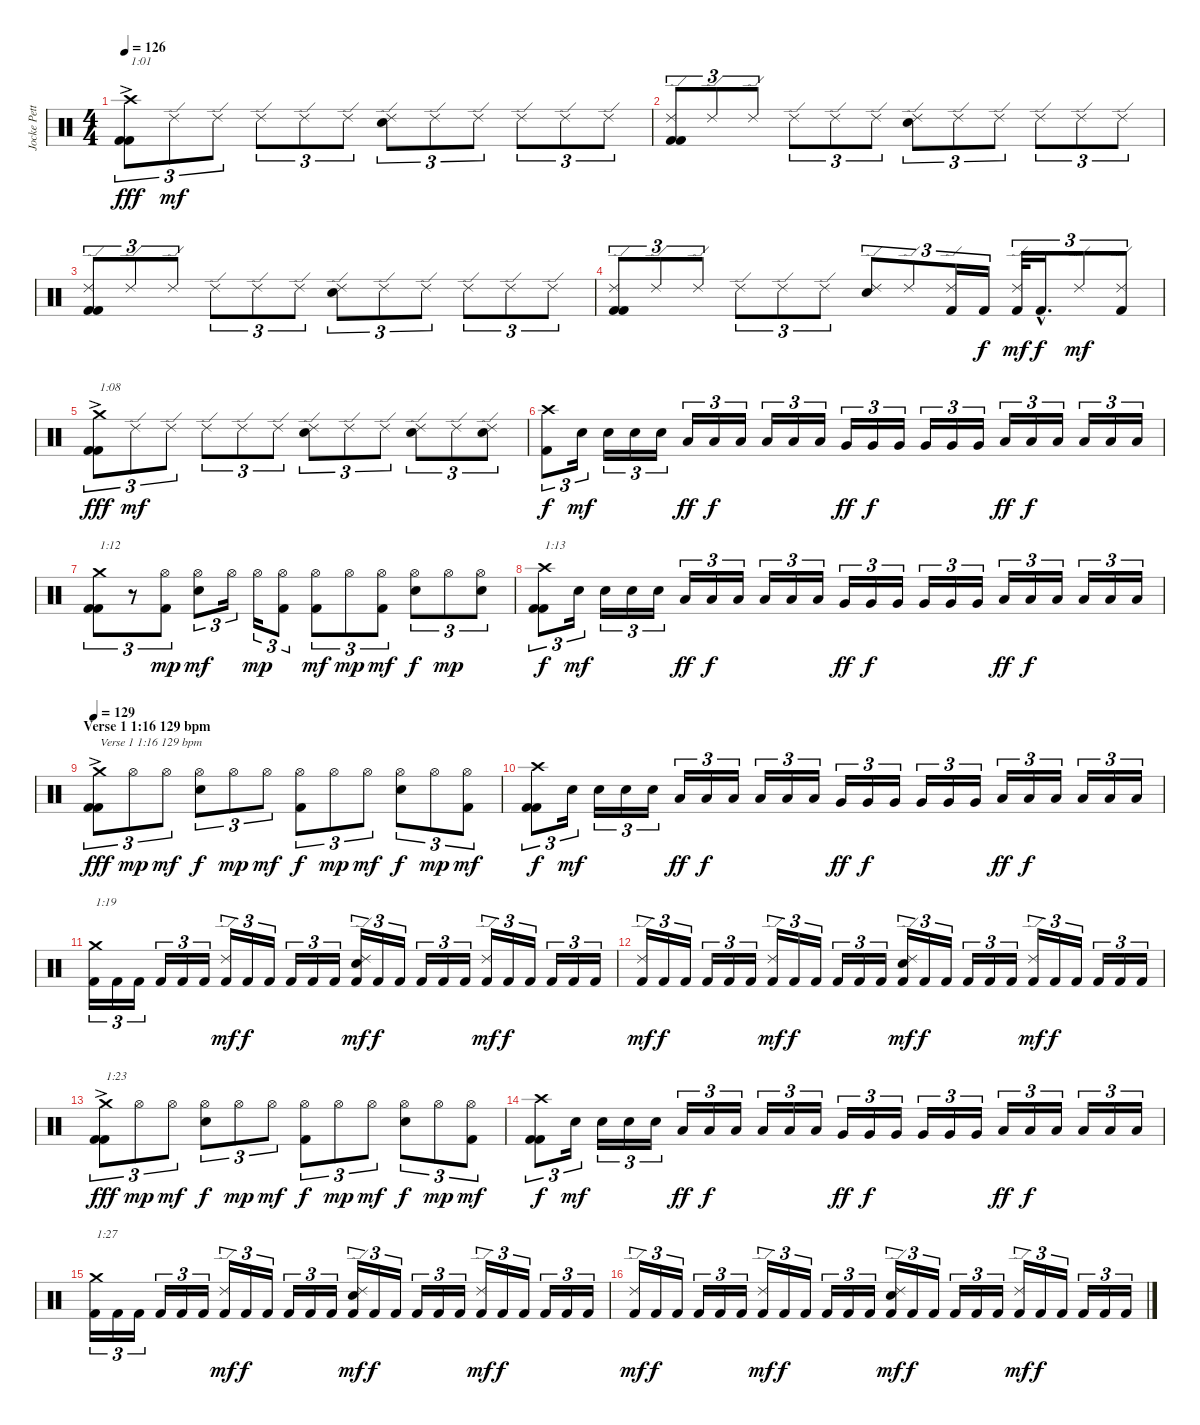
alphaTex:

\track ("Jocke Pettersson" "Jocke Pett") {instrument percussion}
\staff {score}
\articulation defaults
\ts (4 4)
\tempo 126
\clef neutral
\ks c
("Kick (hit) 2" "Kick (hit) 2" "Crash high (hit)"{ac}).8{tu (3 2) txt "1:01" dy fff} "Ride (edge) 2".8{tu (3 2) dy mf} "Ride (edge) 2".8{tu (3 2)} "Ride (edge) 2".8{tu (3 2)} "Ride (edge) 2".8{tu (3 2)} "Ride (edge) 2".8{tu (3 2)} ("Electric Snare (hit)" "Ride (edge) 2").8{tu (3 2)} "Ride (edge) 2".8{tu (3 2)} "Ride (edge) 2".8{tu (3 2)} "Ride (edge) 2".8{tu (3 2)} "Ride (edge) 2".8{tu (3 2)} "Ride (edge) 2".8{tu (3 2)} |
("Kick (hit) 2" "Kick (hit) 2" "Ride (edge) 2").8{tu (3 2)} "Ride (edge) 2".8{tu (3 2)} "Ride (edge) 2".8{tu (3 2)} "Ride (edge) 2".8{tu (3 2)} "Ride (edge) 2".8{tu (3 2)} "Ride (edge) 2".8{tu (3 2)} ("Electric Snare (hit)" "Ride (edge) 2").8{tu (3 2)} "Ride (edge) 2".8{tu (3 2)} "Ride (edge) 2".8{tu (3 2)} "Ride (edge) 2".8{tu (3 2)} "Ride (edge) 2".8{tu (3 2)} "Ride (edge) 2".8{tu (3 2)} |
("Kick (hit) 2" "Kick (hit) 2" "Ride (edge) 2").8{tu (3 2)} "Ride (edge) 2".8{tu (3 2)} "Ride (edge) 2".8{tu (3 2)} "Ride (edge) 2".8{tu (3 2)} "Ride (edge) 2".8{tu (3 2)} "Ride (edge) 2".8{tu (3 2)} ("Electric Snare (hit)" "Ride (edge) 2").8{tu (3 2)} "Ride (edge) 2".8{tu (3 2)} "Ride (edge) 2".8{tu (3 2)} "Ride (edge) 2".8{tu (3 2)} "Ride (edge) 2".8{tu (3 2)} "Ride (edge) 2".8{tu (3 2)} |
("Kick (hit) 2" "Kick (hit) 2" "Ride (edge) 2").8{tu (3 2)} "Ride (edge) 2".8{tu (3 2)} "Ride (edge) 2".8{tu (3 2)} "Ride (edge) 2".8{tu (3 2)} "Ride (edge) 2".8{tu (3 2)} "Ride (edge) 2".8{tu (3 2)} ("Electric Snare (hit)" "Ride (edge) 2").8{tu (3 2)} "Ride (edge) 2".8{tu (3 2)} ("Kick (hit) 2" "Ride (edge) 2").16{tu (3 2)} "Kick (hit) 2".16{tu (3 2) dy f} ("Kick (hit) 2" "Ride (edge) 2").32{tu (3 2) dy mf} "Kick (hit) 2"{hac}.16{d tu (3 2) dy f} "Ride (edge) 2".8{tu (3 2) dy mf} ("Kick (hit) 2" "Ride (edge) 2").8{tu (3 2)} |
("Kick (hit) 2" "Kick (hit) 2" "Crash medium (hit)"{ac}).8{tu (3 2) txt "1:08" dy fff} "Ride (edge) 2".8{tu (3 2) dy mf} "Ride (edge) 2".8{tu (3 2)} "Ride (edge) 2".8{tu (3 2)} "Ride (edge) 2".8{tu (3 2)} "Ride (edge) 2".8{tu (3 2)} ("Electric Snare (hit)" "Ride (edge) 2").8{tu (3 2)} "Ride (edge) 2".8{tu (3 2)} "Ride (edge) 2".8{tu (3 2)} ("Electric Snare (hit)" "Ride (edge) 2").8{tu (3 2)} "Ride (edge) 2".8{tu (3 2)} ("Electric Snare (hit)" "Ride (edge) 2").8{tu (3 2)} |
("Kick (hit) 2" "Crash high (hit)").8{tu (3 2) dy f} "Electric Snare (hit)".16{tu (3 2) dy mf} "Electric Snare (hit)".16{tu (3 2)} "Electric Snare (hit)".16{tu (3 2)} "Electric Snare (hit)".16{tu (3 2)} "Low Tom (hit)".16{tu (3 2) dy ff} "Low Tom (hit)".16{tu (3 2) dy f} "Low Tom (hit)".16{tu (3 2)} "Low Tom (hit)".16{tu (3 2)} "Low Tom (hit)".16{tu (3 2)} "Low Tom (hit)".16{tu (3 2)} "Very Low Tom (hit)".16{tu (3 2) dy ff} "Very Low Tom (hit)".16{tu (3 2) dy f} "Very Low Tom (hit)".16{tu (3 2)} "Very Low Tom (hit)".16{tu (3 2)} "Very Low Tom (hit)".16{tu (3 2)} "Very Low Tom (hit)".16{tu (3 2)} "Low Floor Tom (hit)".16{tu (3 2) dy ff} "Low Floor Tom (hit)".16{tu (3 2) dy f} "Low Floor Tom (hit)".16{tu (3 2)} "Low Floor Tom (hit)".16{tu (3 2)} "Low Floor Tom (hit)".16{tu (3 2)} "Low Floor Tom (hit)".16{tu (3 2)} |
("Kick (hit) 2" "Kick (hit) 2" "Crash medium (hit)").8{tu (3 2) txt "1:12"} r.8{tu (3 2)} ("Kick (hit) 2" "Hi-Hat (open)").8{tu (3 2) dy mp} ("Electric Snare (hit)" "Hi-Hat (open)").8{tu (3 2) dy mf} "Hi-Hat (open)".16{tu (3 2)} "Hi-Hat (open)".16{tu (3 2) dy mp} ("Kick (hit) 2" "Hi-Hat (open)").8{tu (3 2)} ("Kick (hit) 2" "Hi-Hat (open)").8{tu (3 2) dy mf} "Hi-Hat (open)".8{tu (3 2) dy mp} ("Kick (hit) 2" "Hi-Hat (open)").8{tu (3 2) dy mf} ("Electric Snare (hit)" "Hi-Hat (open)").8{tu (3 2) dy f} "Hi-Hat (open)".8{tu (3 2) dy mp} ("Electric Snare (hit)" "Hi-Hat (open)").8{tu (3 2)} |
("Kick (hit) 2" "Kick (hit) 2" "Crash high (hit)").8{tu (3 2) txt "1:13" dy f} "Electric Snare (hit)".16{tu (3 2) dy mf} "Electric Snare (hit)".16{tu (3 2)} "Electric Snare (hit)".16{tu (3 2)} "Electric Snare (hit)".16{tu (3 2)} "Low Tom (hit)".16{tu (3 2) dy ff} "Low Tom (hit)".16{tu (3 2) dy f} "Low Tom (hit)".16{tu (3 2)} "Low Tom (hit)".16{tu (3 2)} "Low Tom (hit)".16{tu (3 2)} "Low Tom (hit)".16{tu (3 2)} "Very Low Tom (hit)".16{tu (3 2) dy ff} "Very Low Tom (hit)".16{tu (3 2) dy f} "Very Low Tom (hit)".16{tu (3 2)} "Very Low Tom (hit)".16{tu (3 2)} "Very Low Tom (hit)".16{tu (3 2)} "Very Low Tom (hit)".16{tu (3 2)} "Low Floor Tom (hit)".16{tu (3 2) dy ff} "Low Floor Tom (hit)".16{tu (3 2) dy f} "Low Floor Tom (hit)".16{tu (3 2)} "Low Floor Tom (hit)".16{tu (3 2)} "Low Floor Tom (hit)".16{tu (3 2)} "Low Floor Tom (hit)".16{tu (3 2)} |
\section ("" "Verse 1 1:16 129 bpm")
\tempo 129
("Kick (hit) 2" "Kick (hit) 2" "Crash medium (hit)"{ac}).8{tu (3 2) txt "Verse 1 1:16 129 bpm" dy fff} "Hi-Hat (open)".8{tu (3 2) dy mp} "Hi-Hat (open)".8{tu (3 2) dy mf} ("Electric Snare (hit)" "Hi-Hat (open)").8{tu (3 2) dy f} "Hi-Hat (open)".8{tu (3 2) dy mp} "Hi-Hat (open)".8{tu (3 2) dy mf} ("Kick (hit) 2" "Hi-Hat (open)").8{tu (3 2) dy f} "Hi-Hat (open)".8{tu (3 2) dy mp} "Hi-Hat (open)".8{tu (3 2) dy mf} ("Electric Snare (hit)" "Hi-Hat (open)").8{tu (3 2) dy f} "Hi-Hat (open)".8{tu (3 2) dy mp} ("Kick (hit) 2" "Hi-Hat (open)").8{tu (3 2) dy mf} |
("Kick (hit) 2" "Kick (hit) 2" "Crash high (hit)").8{tu (3 2) dy f} "Electric Snare (hit)".16{tu (3 2) dy mf} "Electric Snare (hit)".16{tu (3 2)} "Electric Snare (hit)".16{tu (3 2)} "Electric Snare (hit)".16{tu (3 2)} "Low Tom (hit)".16{tu (3 2) dy ff} "Low Tom (hit)".16{tu (3 2) dy f} "Low Tom (hit)".16{tu (3 2)} "Low Tom (hit)".16{tu (3 2)} "Low Tom (hit)".16{tu (3 2)} "Low Tom (hit)".16{tu (3 2)} "Very Low Tom (hit)".16{tu (3 2) dy ff} "Very Low Tom (hit)".16{tu (3 2) dy f} "Very Low Tom (hit)".16{tu (3 2)} "Very Low Tom (hit)".16{tu (3 2)} "Very Low Tom (hit)".16{tu (3 2)} "Very Low Tom (hit)".16{tu (3 2)} "Low Floor Tom (hit)".16{tu (3 2) dy ff} "Low Floor Tom (hit)".16{tu (3 2) dy f} "Low Floor Tom (hit)".16{tu (3 2)} "Low Floor Tom (hit)".16{tu (3 2)} "Low Floor Tom (hit)".16{tu (3 2)} "Low Floor Tom (hit)".16{tu (3 2)} |
("Kick (hit) 2" "Crash medium (hit)").16{tu (3 2) txt "1:19"} "Kick (hit) 2".16{tu (3 2)} "Kick (hit) 2".16{tu (3 2)} "Kick (hit) 2".16{tu (3 2)} "Kick (hit) 2".16{tu (3 2)} "Kick (hit) 2".16{tu (3 2)} ("Kick (hit) 2" "Ride (edge) 2").16{tu (3 2) dy mf} "Kick (hit) 2".16{tu (3 2) dy f} "Kick (hit) 2".16{tu (3 2)} "Kick (hit) 2".16{tu (3 2)} "Kick (hit) 2".16{tu (3 2)} "Kick (hit) 2".16{tu (3 2)} ("Kick (hit) 2" "Electric Snare (hit)" "Ride (edge) 2").16{tu (3 2) dy mf} "Kick (hit) 2".16{tu (3 2) dy f} "Kick (hit) 2".16{tu (3 2)} "Kick (hit) 2".16{tu (3 2)} "Kick (hit) 2".16{tu (3 2)} "Kick (hit) 2".16{tu (3 2)} ("Kick (hit) 2" "Ride (edge) 2").16{tu (3 2) dy mf} "Kick (hit) 2".16{tu (3 2) dy f} "Kick (hit) 2".16{tu (3 2)} "Kick (hit) 2".16{tu (3 2)} "Kick (hit) 2".16{tu (3 2)} "Kick (hit) 2".16{tu (3 2)} |
("Kick (hit) 2" "Ride (edge) 2").16{tu (3 2) dy mf} "Kick (hit) 2".16{tu (3 2) dy f} "Kick (hit) 2".16{tu (3 2)} "Kick (hit) 2".16{tu (3 2)} "Kick (hit) 2".16{tu (3 2)} "Kick (hit) 2".16{tu (3 2)} ("Kick (hit) 2" "Ride (edge) 2").16{tu (3 2) dy mf} "Kick (hit) 2".16{tu (3 2) dy f} "Kick (hit) 2".16{tu (3 2)} "Kick (hit) 2".16{tu (3 2)} "Kick (hit) 2".16{tu (3 2)} "Kick (hit) 2".16{tu (3 2)} ("Kick (hit) 2" "Electric Snare (hit)" "Ride (edge) 2").16{tu (3 2) dy mf} "Kick (hit) 2".16{tu (3 2) dy f} "Kick (hit) 2".16{tu (3 2)} "Kick (hit) 2".16{tu (3 2)} "Kick (hit) 2".16{tu (3 2)} "Kick (hit) 2".16{tu (3 2)} ("Kick (hit) 2" "Ride (edge) 2").16{tu (3 2) dy mf} "Kick (hit) 2".16{tu (3 2) dy f} "Kick (hit) 2".16{tu (3 2)} "Kick (hit) 2".16{tu (3 2)} "Kick (hit) 2".16{tu (3 2)} "Kick (hit) 2".16{tu (3 2)} |
("Kick (hit) 2" "Kick (hit) 2" "Crash medium (hit)"{ac}).8{tu (3 2) txt "1:23" dy fff} "Hi-Hat (open)".8{tu (3 2) dy mp} "Hi-Hat (open)".8{tu (3 2) dy mf} ("Electric Snare (hit)" "Hi-Hat (open)").8{tu (3 2) dy f} "Hi-Hat (open)".8{tu (3 2) dy mp} "Hi-Hat (open)".8{tu (3 2) dy mf} ("Kick (hit) 2" "Hi-Hat (open)").8{tu (3 2) dy f} "Hi-Hat (open)".8{tu (3 2) dy mp} "Hi-Hat (open)".8{tu (3 2) dy mf} ("Electric Snare (hit)" "Hi-Hat (open)").8{tu (3 2) dy f} "Hi-Hat (open)".8{tu (3 2) dy mp} ("Kick (hit) 2" "Hi-Hat (open)").8{tu (3 2) dy mf} |
("Kick (hit) 2" "Kick (hit) 2" "Crash high (hit)").8{tu (3 2) dy f} "Electric Snare (hit)".16{tu (3 2) dy mf} "Electric Snare (hit)".16{tu (3 2)} "Electric Snare (hit)".16{tu (3 2)} "Electric Snare (hit)".16{tu (3 2)} "Low Tom (hit)".16{tu (3 2) dy ff} "Low Tom (hit)".16{tu (3 2) dy f} "Low Tom (hit)".16{tu (3 2)} "Low Tom (hit)".16{tu (3 2)} "Low Tom (hit)".16{tu (3 2)} "Low Tom (hit)".16{tu (3 2)} "Very Low Tom (hit)".16{tu (3 2) dy ff} "Very Low Tom (hit)".16{tu (3 2) dy f} "Very Low Tom (hit)".16{tu (3 2)} "Very Low Tom (hit)".16{tu (3 2)} "Very Low Tom (hit)".16{tu (3 2)} "Very Low Tom (hit)".16{tu (3 2)} "Low Floor Tom (hit)".16{tu (3 2) dy ff} "Low Floor Tom (hit)".16{tu (3 2) dy f} "Low Floor Tom (hit)".16{tu (3 2)} "Low Floor Tom (hit)".16{tu (3 2)} "Low Floor Tom (hit)".16{tu (3 2)} "Low Floor Tom (hit)".16{tu (3 2)} |
("Kick (hit) 2" "Crash medium (hit)").16{tu (3 2) txt "1:27"} "Kick (hit) 2".16{tu (3 2)} "Kick (hit) 2".16{tu (3 2)} "Kick (hit) 2".16{tu (3 2)} "Kick (hit) 2".16{tu (3 2)} "Kick (hit) 2".16{tu (3 2)} ("Kick (hit) 2" "Ride (edge) 2").16{tu (3 2) dy mf} "Kick (hit) 2".16{tu (3 2) dy f} "Kick (hit) 2".16{tu (3 2)} "Kick (hit) 2".16{tu (3 2)} "Kick (hit) 2".16{tu (3 2)} "Kick (hit) 2".16{tu (3 2)} ("Kick (hit) 2" "Electric Snare (hit)" "Ride (edge) 2").16{tu (3 2) dy mf} "Kick (hit) 2".16{tu (3 2) dy f} "Kick (hit) 2".16{tu (3 2)} "Kick (hit) 2".16{tu (3 2)} "Kick (hit) 2".16{tu (3 2)} "Kick (hit) 2".16{tu (3 2)} ("Kick (hit) 2" "Ride (edge) 2").16{tu (3 2) dy mf} "Kick (hit) 2".16{tu (3 2) dy f} "Kick (hit) 2".16{tu (3 2)} "Kick (hit) 2".16{tu (3 2)} "Kick (hit) 2".16{tu (3 2)} "Kick (hit) 2".16{tu (3 2)} |
("Kick (hit) 2" "Ride (edge) 2").16{tu (3 2) dy mf} "Kick (hit) 2".16{tu (3 2) dy f} "Kick (hit) 2".16{tu (3 2)} "Kick (hit) 2".16{tu (3 2)} "Kick (hit) 2".16{tu (3 2)} "Kick (hit) 2".16{tu (3 2)} ("Kick (hit) 2" "Ride (edge) 2").16{tu (3 2) dy mf} "Kick (hit) 2".16{tu (3 2) dy f} "Kick (hit) 2".16{tu (3 2)} "Kick (hit) 2".16{tu (3 2)} "Kick (hit) 2".16{tu (3 2)} "Kick (hit) 2".16{tu (3 2)} ("Kick (hit) 2" "Electric Snare (hit)" "Ride (edge) 2").16{tu (3 2) dy mf} "Kick (hit) 2".16{tu (3 2) dy f} "Kick (hit) 2".16{tu (3 2)} "Kick (hit) 2".16{tu (3 2)} "Kick (hit) 2".16{tu (3 2)} "Kick (hit) 2".16{tu (3 2)} ("Kick (hit) 2" "Ride (edge) 2").16{tu (3 2) dy mf} "Kick (hit) 2".16{tu (3 2) dy f} "Kick (hit) 2".16{tu (3 2)} "Kick (hit) 2".16{tu (3 2)} "Kick (hit) 2".16{tu (3 2)} "Kick (hit) 2".16{tu (3 2)}
